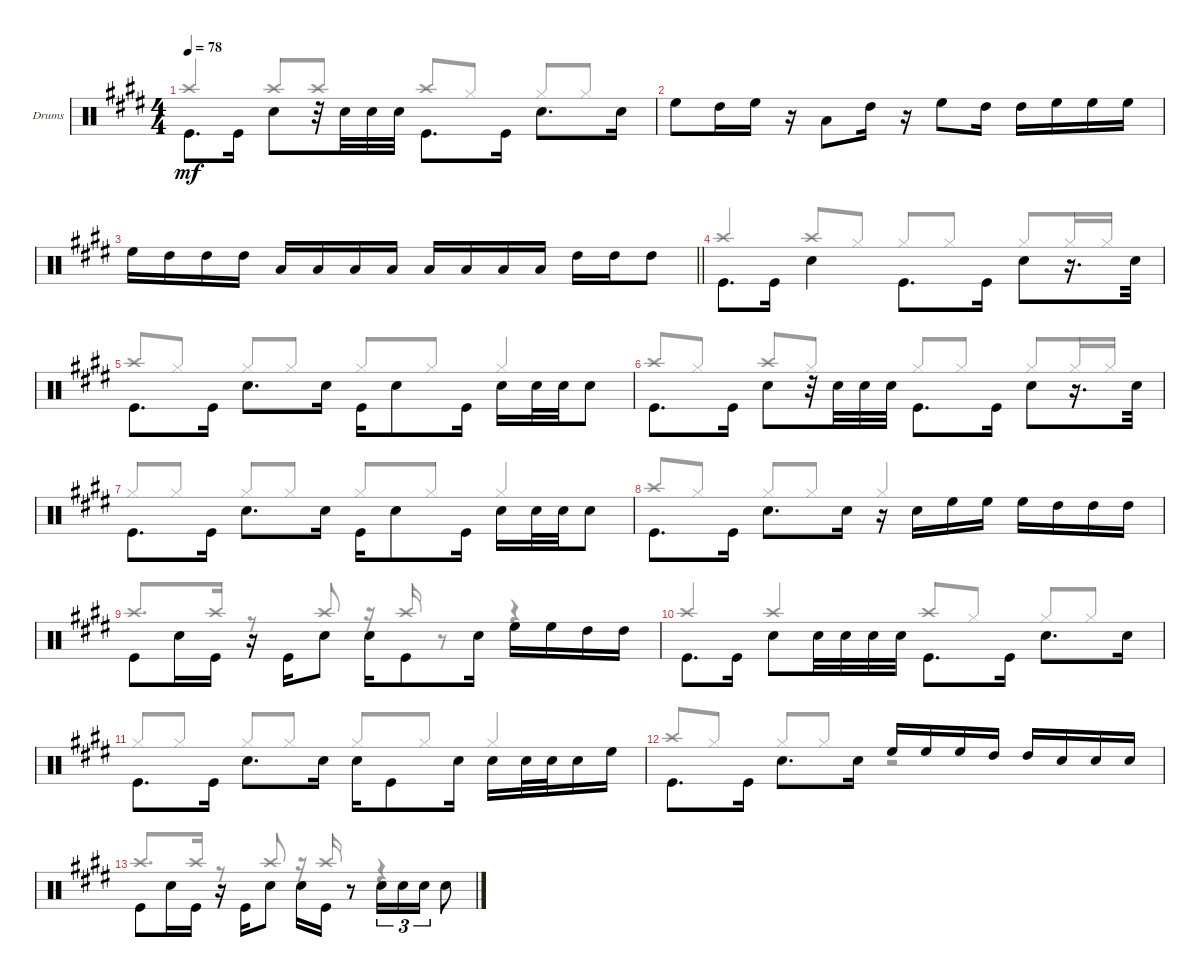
\defaultSystemsLayout 4
\bracketExtendMode groupsimilarinstruments
\firstSystemTrackNameOrientation horizontal
\otherSystemsTrackNameOrientation horizontal
\track ("PETER CRISS" "Drums") {mute instrument percussion}
\staff {score}
\articulation defaults
\voice
\ts (4 4)
\tempo 78
\clef neutral
\scale
0.436389
\ks e "Kick (hit)".8{d dy mf beam invert} "Kick (hit)".16 "Snare (hit) 2".8{beam invert}
r.32 "Snare (hit) 2".32 "Snare (hit) 2".32 "Snare (hit) 2".32 "Kick (hit)".8{d beam invert} "Kick (hit)".16 "Snare (hit) 2".8{d beam invert} "Snare (hit) 2".16 |
"High Floor Tom (hit)".8 "High Tom (hit)".16 "High Floor Tom (hit)".16 r.16 "Low Tom (hit)".8 "High Tom (hit)".16 r.16 "High Floor Tom (hit)".8 "High Tom (hit)".16 "High Tom (hit)".16 "High Floor Tom (hit)".16 "High Floor Tom (hit)".16 "High Floor Tom (hit)".16 |
\barLineRight lightlight "High Floor Tom (hit)".16 "High Tom (hit)".16 "High Tom (hit)".16 "High Tom (hit)".16 "Low Tom (hit)".16 "Low Tom (hit)".16 "Low Tom (hit)".16 "Low Tom (hit)".16 "Low Tom (hit)".16 "Low Tom (hit)".16 "Low Tom (hit)".16 "Low Tom (hit)".16 "High Tom (hit)".16 "High Tom (hit)".16 "High Tom (hit)".8
|
"Kick (hit)".8{d beam invert} "Kick (hit)".16 "Snare (hit) 2".4{beam invert} "Kick (hit)".8{d beam invert} "Kick (hit)".16 "Snare (hit) 2".8{beam invert} r.16{d} "Snare (hit) 2".32 |
"Kick (hit)".8{d beam invert} "Kick (hit)".16 "Snare (hit) 2".8{d beam invert} "Snare (hit) 2".16 "Kick (hit)".16{beam invert} "Snare (hit) 2".8 "Kick (hit)".16 "Snare (hit) 2".16{beam invert} "Snare (hit) 2".32 "Snare (hit) 2".32 "Snare (hit) 2".8 |
"Kick (hit)".8{d beam invert} "Kick (hit)".16 "Snare (hit) 2".8 r.32 "Snare (hit) 2".32{beam invert} "Snare (hit) 2".32 "Snare (hit) 2".32 "Kick (hit)".8{d beam invert} "Kick (hit)".16 "Snare (hit) 2".8{beam invert} r.16{d} "Snare (hit) 2".32 |
"Kick (hit)".8{d beam invert} "Kick (hit)".16 "Snare (hit) 2".8{d beam invert} "Snare (hit) 2".16 "Kick (hit)".16{beam invert} "Snare (hit) 2".8 "Kick (hit)".16 "Snare (hit) 2".16{beam invert} "Snare (hit) 2".32 "Snare (hit) 2".32 "Snare (hit) 2".8 |
"Kick (hit)".8{d beam invert} "Kick (hit)".16 "Snare (hit) 2".8{d beam invert} "Snare (hit) 2".16 r.16 "Snare (hit) 2".16{beam invert} "High Floor Tom (hit)".16 "High Floor Tom (hit)".16 "High Floor Tom (hit)".16{beam invert} "High Tom (hit)".16 "High Tom (hit)".16 "High Tom (hit)".16 |
"Kick (hit)".8{beam invert} "Snare (hit) 2".16 "Kick (hit)".16 r.16 "Kick (hit)".16{beam invert} "Snare (hit) 2".8 "Snare (hit) 2".16{beam invert} "Kick (hit)".8 "Snare (hit) 2".16 "High Floor Tom (hit)".16{beam invert} "High Floor Tom (hit)".16 "High Tom (hit)".16 "High Tom (hit)".16 |
"Kick (hit)".8{d beam invert} "Kick (hit)".16 "Snare (hit) 2".8{beam invert} "Snare (hit) 2".32 "Snare (hit) 2".32 "Snare (hit) 2".32 "Snare (hit) 2".32 "Kick (hit)".8{d beam invert} "Kick (hit)".16 "Snare (hit) 2".8{d beam invert} "Snare (hit) 2".16 |
"Kick (hit)".8{d beam invert} "Kick (hit)".16 "Snare (hit) 2".8{d beam invert} "Snare (hit) 2".16 "Snare (hit) 2".16{beam invert} "Kick (hit)".8 "Snare (hit) 2".16 "Snare (hit) 2".16{beam invert} "Snare (hit) 2".32 "Snare (hit) 2".32 "Snare (hit) 2".16 "High Floor Tom (hit)".16 |
"Kick (hit)".8{d beam invert} "Kick (hit)".16 "Snare (hit) 2".8{d beam invert} "Snare (hit) 2".16 "High Floor Tom (hit)".16 "High Floor Tom (hit)".16 "High Floor Tom (hit)".16 "High Tom (hit)".16 "High Tom (hit)".16 "Snare (hit) 2".16 "Snare (hit) 2".16 "Snare (hit) 2".16 |
"Kick (hit)".8{beam invert} "Snare (hit) 2".16 "Kick (hit)".16 r.16 "Kick (hit)".16{beam invert} "Snare (hit) 2".8 "Snare (hit) 2".16{beam invert} "Kick (hit)".16 r.8 "Snare (hit) 2".16{tu (3 2) beam invert} "Snare (hit) 2".16{tu (3 2)} "Snare (hit) 2".16{tu (3 2)} "Snare (hit) 2".8{beam invert}
\voice
\clef neutral
\ottava regular
\simile none
\scale
0.436389
\ks e "Crash high (hit)".4{dy mf beam invert} "Crash high (hit)".8{beam invert} "Crash high (hit)".8 "Crash high (hit)".8{beam invert} "Hi-Hat (closed)".8 "Hi-Hat (closed)".8{beam invert} "Hi-Hat (closed)".8
|
|
\barLineRight lightlight
|
"Crash high (hit)".4{beam invert} "Crash high (hit)".8{beam invert} "Hi-Hat (closed)".8 "Hi-Hat (closed)".8{beam invert} "Hi-Hat (closed)".8 "Hi-Hat (closed)".8{beam invert} "Hi-Hat (closed)".16 "Hi-Hat (closed)".16 |
"Crash high (hit)".8{beam invert} "Hi-Hat (closed)".8 "Hi-Hat (closed)".8{beam invert} "Hi-Hat (closed)".8 "Hi-Hat (closed)".8{beam invert} "Hi-Hat (closed)".8 "Hi-Hat (closed)".4{beam invert} |
"Crash high (hit)".8{beam invert} "Hi-Hat (closed)".8 "Crash high (hit)".8{beam invert} "Hi-Hat (closed)".8 "Hi-Hat (closed)".8{beam invert} "Hi-Hat (closed)".8 "Hi-Hat (closed)".8{beam invert} "Hi-Hat (closed)".16 "Hi-Hat (closed)".16 |
"Hi-Hat (closed)".8{beam invert} "Hi-Hat (closed)".8 "Hi-Hat (closed)".8{beam invert} "Hi-Hat (closed)".8 "Hi-Hat (closed)".8{beam invert} "Hi-Hat (closed)".8 "Hi-Hat (closed)".4{beam invert} |
"Crash high (hit)".8{beam invert} "Hi-Hat (closed)".8 "Hi-Hat (closed)".8{beam invert} "Hi-Hat (closed)".8 "Hi-Hat (closed)".2{beam invert} |
"Crash high (hit)".8{d beam invert} "Crash high (hit)".16 r.8{beam invert} "Crash high (hit)".8{beam invert} r.16{beam invert} "Crash high (hit)".16{beam invert} r.8{beam invert} r.4{beam invert} |
"Crash high (hit)".4{beam invert} "Crash high (hit)".4{beam invert} "Crash high (hit)".8{beam invert} "Hi-Hat (closed)".8 "Hi-Hat (closed)".8{beam invert} "Hi-Hat (closed)".8 |
"Hi-Hat (closed)".8{beam invert} "Hi-Hat (closed)".8 "Hi-Hat (closed)".8{beam invert} "Hi-Hat (closed)".8 "Hi-Hat (closed)".8{beam invert} "Hi-Hat (closed)".8 "Hi-Hat (closed)".4{beam invert} |
"Crash high (hit)".8{beam invert} "Hi-Hat (closed)".8 "Hi-Hat (closed)".8{beam invert} "Hi-Hat (closed)".8 r.2{beam invert} |
"Crash high (hit)".8{d beam invert} "Crash high (hit)".16 r.8{beam invert} "Crash high (hit)".8{beam invert} r.16{beam invert} "Crash high (hit)".16{beam invert} r.8{beam invert} r.4
